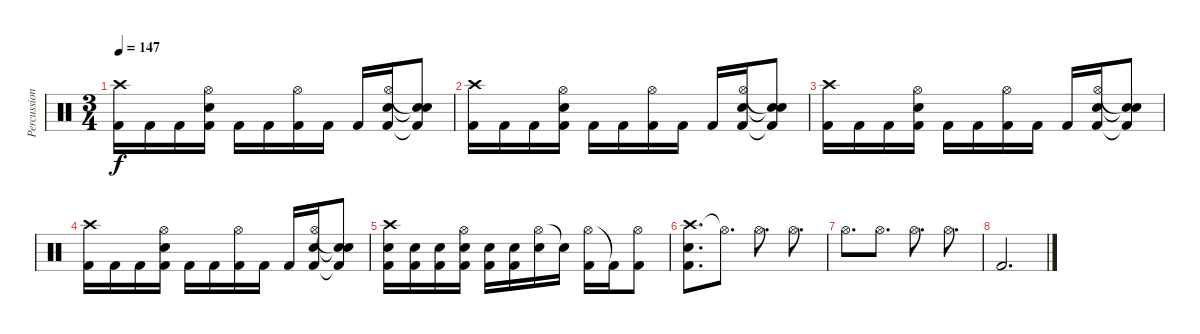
\track ("Percussion" "Percussion") {instrument percussion}
\staff {score}
\articulation defaults
\ts (3 4)
\tempo 147
\clef neutral
\ks c
("Crash high (hit)" "Kick (hit) 2").16{dy f} "Kick (hit) 2".16 "Kick (hit) 2".16 ("Hi-Hat (open)" "Electric Snare (hit)" "Kick (hit) 2").16 "Kick (hit) 2".16 "Kick (hit) 2".16 ("Hi-Hat (open)" "Kick (hit) 2").16 "Kick (hit) 2".16 "Kick (hit) 2".16 ("Hi-Hat (open)" "Electric Snare (hit)" "Kick (hit) 2").16 ("Snare (hit)"{t} "Snare (hit)"{t} "Kick (hit) 2"{t}).8 |
("Crash high (hit)" "Kick (hit) 2").16 "Kick (hit) 2".16 "Kick (hit) 2".16 ("Hi-Hat (open)" "Electric Snare (hit)" "Kick (hit) 2").16 "Kick (hit) 2".16 "Kick (hit) 2".16 ("Hi-Hat (open)" "Kick (hit) 2").16 "Kick (hit) 2".16 "Kick (hit) 2".16 ("Hi-Hat (open)" "Electric Snare (hit)" "Kick (hit) 2").16 ("Snare (hit)"{t} "Snare (hit)"{t} "Kick (hit) 2"{t}).8 |
("Crash high (hit)" "Kick (hit) 2").16 "Kick (hit) 2".16 "Kick (hit) 2".16 ("Hi-Hat (open)" "Electric Snare (hit)" "Kick (hit) 2").16 "Kick (hit) 2".16 "Kick (hit) 2".16 ("Hi-Hat (open)" "Kick (hit) 2").16 "Kick (hit) 2".16 "Kick (hit) 2".16 ("Hi-Hat (open)" "Electric Snare (hit)" "Kick (hit) 2").16 ("Snare (hit)"{t} "Snare (hit)"{t} "Kick (hit) 2"{t}).8 |
("Crash high (hit)" "Kick (hit) 2").16 "Kick (hit) 2".16 "Kick (hit) 2".16 ("Hi-Hat (open)" "Electric Snare (hit)" "Kick (hit) 2").16 "Kick (hit) 2".16 "Kick (hit) 2".16 ("Hi-Hat (open)" "Kick (hit) 2").16 "Kick (hit) 2".16 "Kick (hit) 2".16 ("Hi-Hat (open)" "Electric Snare (hit)" "Kick (hit) 2").16 ("Snare (hit)"{t} "Snare (hit)"{t} "Kick (hit) 2"{t}).8 |
("Crash high (hit)" "Electric Snare (hit)" "Kick (hit) 2").16 ("Electric Snare (hit)" "Kick (hit) 2").16 ("Electric Snare (hit)" "Kick (hit) 2").16 ("Hi-Hat (open)" "Electric Snare (hit)" "Kick (hit) 2").16 ("Electric Snare (hit)" "Kick (hit) 2").16 ("Electric Snare (hit)" "Kick (hit) 2").16 ("Hi-Hat (open)" "Electric Snare (hit)").16 "Snare (hit)"{t}.16 ("Hi-Hat (open)" "Kick (hit) 2").16 "Kick (hit) 2"{t}.16 ("Hi-Hat (open)" "Kick (hit) 2").8 |
("Crash high (hit)" "Electric Snare (hit)" "Kick (hit) 2").8{d} "Hi-Hat (open)"{t}.8{d} "Hi-Hat (open)".8{d} "Hi-Hat (open)".8{d} |
"Hi-Hat (open)".8{d} "Hi-Hat (open)".8{d} "Hi-Hat (open)".8{d} "Hi-Hat (open)".8{d} |
"Kick (hit) 2".2{d}
